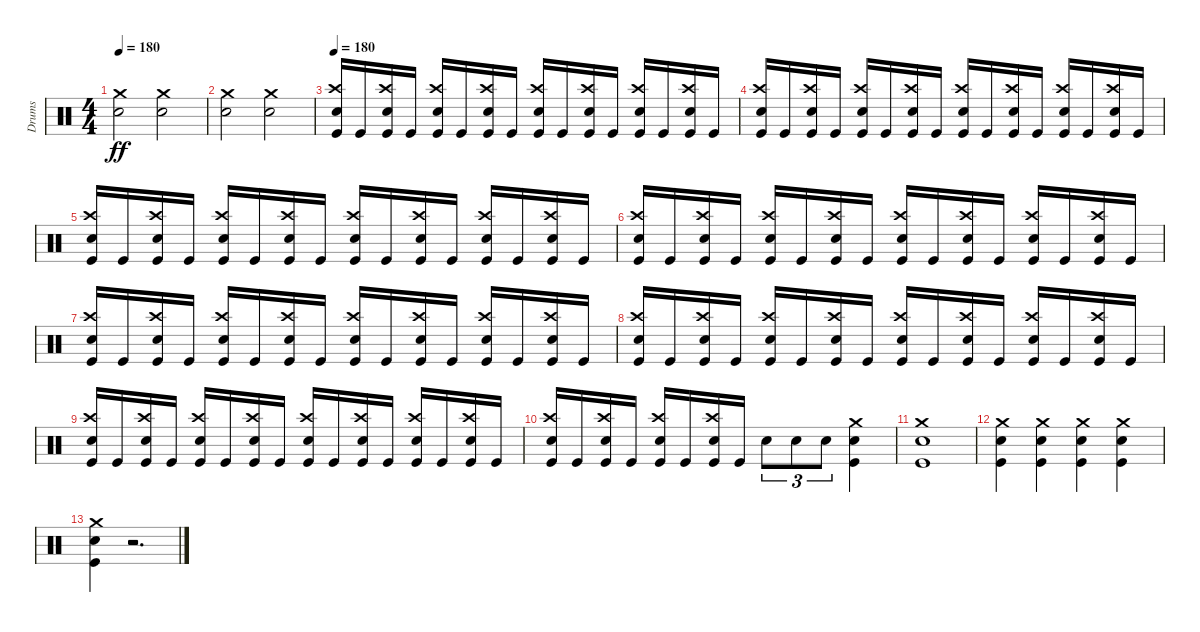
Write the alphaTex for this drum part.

\track ("Drums" "Drums") {instrument percussion}
\staff {score}
\articulation defaults
\ts (4 4)
\tempo 180
\clef neutral
\ks c
("Crash medium (hit)" "Electric Snare (hit)").2{dy ff} ("Crash medium (hit)" "Electric Snare (hit)").2 |
("Crash medium (hit)" "Electric Snare (hit)").2 ("Crash medium (hit)" "Electric Snare (hit)").2 |
\tempo 180
("Crash high (hit)" "Electric Snare (hit)" "Kick (hit)").16 "Kick (hit)".16 ("Crash high (hit)" "Electric Snare (hit)" "Kick (hit)").16 "Kick (hit)".16 ("Crash high (hit)" "Electric Snare (hit)" "Kick (hit)").16 "Kick (hit)".16 ("Crash high (hit)" "Electric Snare (hit)" "Kick (hit)").16 "Kick (hit)".16 ("Crash high (hit)" "Electric Snare (hit)" "Kick (hit)").16 "Kick (hit)".16 ("Crash high (hit)" "Electric Snare (hit)" "Kick (hit)").16 "Kick (hit)".16 ("Crash high (hit)" "Electric Snare (hit)" "Kick (hit)").16 "Kick (hit)".16 ("Crash high (hit)" "Electric Snare (hit)" "Kick (hit)").16 "Kick (hit)".16 |
("Crash high (hit)" "Electric Snare (hit)" "Kick (hit)").16 "Kick (hit)".16 ("Crash high (hit)" "Electric Snare (hit)" "Kick (hit)").16 "Kick (hit)".16 ("Crash high (hit)" "Electric Snare (hit)" "Kick (hit)").16 "Kick (hit)".16 ("Crash high (hit)" "Electric Snare (hit)" "Kick (hit)").16 "Kick (hit)".16 ("Crash high (hit)" "Electric Snare (hit)" "Kick (hit)").16 "Kick (hit)".16 ("Crash high (hit)" "Electric Snare (hit)" "Kick (hit)").16 "Kick (hit)".16 ("Crash high (hit)" "Electric Snare (hit)" "Kick (hit)").16 "Kick (hit)".16 ("Crash high (hit)" "Electric Snare (hit)" "Kick (hit)").16 "Kick (hit)".16 |
("Crash high (hit)" "Electric Snare (hit)" "Kick (hit)").16 "Kick (hit)".16 ("Crash high (hit)" "Electric Snare (hit)" "Kick (hit)").16 "Kick (hit)".16 ("Crash high (hit)" "Electric Snare (hit)" "Kick (hit)").16 "Kick (hit)".16 ("Crash high (hit)" "Electric Snare (hit)" "Kick (hit)").16 "Kick (hit)".16 ("Crash high (hit)" "Electric Snare (hit)" "Kick (hit)").16 "Kick (hit)".16 ("Crash high (hit)" "Electric Snare (hit)" "Kick (hit)").16 "Kick (hit)".16 ("Crash high (hit)" "Electric Snare (hit)" "Kick (hit)").16 "Kick (hit)".16 ("Crash high (hit)" "Electric Snare (hit)" "Kick (hit)").16 "Kick (hit)".16 |
("Crash high (hit)" "Electric Snare (hit)" "Kick (hit)").16 "Kick (hit)".16 ("Crash high (hit)" "Electric Snare (hit)" "Kick (hit)").16 "Kick (hit)".16 ("Crash high (hit)" "Electric Snare (hit)" "Kick (hit)").16 "Kick (hit)".16 ("Crash high (hit)" "Electric Snare (hit)" "Kick (hit)").16 "Kick (hit)".16 ("Crash high (hit)" "Electric Snare (hit)" "Kick (hit)").16 "Kick (hit)".16 ("Crash high (hit)" "Electric Snare (hit)" "Kick (hit)").16 "Kick (hit)".16 ("Crash high (hit)" "Electric Snare (hit)" "Kick (hit)").16 "Kick (hit)".16 ("Crash high (hit)" "Electric Snare (hit)" "Kick (hit)").16 "Kick (hit)".16 |
("Crash high (hit)" "Electric Snare (hit)" "Kick (hit)").16 "Kick (hit)".16 ("Crash high (hit)" "Electric Snare (hit)" "Kick (hit)").16 "Kick (hit)".16 ("Crash high (hit)" "Electric Snare (hit)" "Kick (hit)").16 "Kick (hit)".16 ("Crash high (hit)" "Electric Snare (hit)" "Kick (hit)").16 "Kick (hit)".16 ("Crash high (hit)" "Electric Snare (hit)" "Kick (hit)").16 "Kick (hit)".16 ("Crash high (hit)" "Electric Snare (hit)" "Kick (hit)").16 "Kick (hit)".16 ("Crash high (hit)" "Electric Snare (hit)" "Kick (hit)").16 "Kick (hit)".16 ("Crash high (hit)" "Electric Snare (hit)" "Kick (hit)").16 "Kick (hit)".16 |
("Crash high (hit)" "Electric Snare (hit)" "Kick (hit)").16 "Kick (hit)".16 ("Crash high (hit)" "Electric Snare (hit)" "Kick (hit)").16 "Kick (hit)".16 ("Crash high (hit)" "Electric Snare (hit)" "Kick (hit)").16 "Kick (hit)".16 ("Crash high (hit)" "Electric Snare (hit)" "Kick (hit)").16 "Kick (hit)".16 ("Crash high (hit)" "Electric Snare (hit)" "Kick (hit)").16 "Kick (hit)".16 ("Crash high (hit)" "Electric Snare (hit)" "Kick (hit)").16 "Kick (hit)".16 ("Crash high (hit)" "Electric Snare (hit)" "Kick (hit)").16 "Kick (hit)".16 ("Crash high (hit)" "Electric Snare (hit)" "Kick (hit)").16 "Kick (hit)".16 |
("Crash high (hit)" "Electric Snare (hit)" "Kick (hit)").16 "Kick (hit)".16 ("Crash high (hit)" "Electric Snare (hit)" "Kick (hit)").16 "Kick (hit)".16 ("Crash high (hit)" "Electric Snare (hit)" "Kick (hit)").16 "Kick (hit)".16 ("Crash high (hit)" "Electric Snare (hit)" "Kick (hit)").16 "Kick (hit)".16 ("Crash high (hit)" "Electric Snare (hit)" "Kick (hit)").16 "Kick (hit)".16 ("Crash high (hit)" "Electric Snare (hit)" "Kick (hit)").16 "Kick (hit)".16 ("Crash high (hit)" "Electric Snare (hit)" "Kick (hit)").16 "Kick (hit)".16 ("Crash high (hit)" "Electric Snare (hit)" "Kick (hit)").16 "Kick (hit)".16 |
("Crash high (hit)" "Electric Snare (hit)" "Kick (hit)").16 "Kick (hit)".16 ("Crash high (hit)" "Electric Snare (hit)" "Kick (hit)").16 "Kick (hit)".16 ("Crash high (hit)" "Electric Snare (hit)" "Kick (hit)").16 "Kick (hit)".16 ("Crash high (hit)" "Electric Snare (hit)" "Kick (hit)").16 "Kick (hit)".16 "Electric Snare (hit)".8{tu (3 2)} "Electric Snare (hit)".8{tu (3 2)} "Electric Snare (hit)".8{tu (3 2)} ("Crash medium (hit)" "Electric Snare (hit)" "Kick (hit)").4 |
("Crash medium (hit)" "Electric Snare (hit)" "Kick (hit)").1 |
("Crash medium (hit)" "Electric Snare (hit)" "Kick (hit)").4 ("Crash medium (hit)" "Electric Snare (hit)" "Kick (hit)").4 ("Crash medium (hit)" "Electric Snare (hit)" "Kick (hit)").4 ("Crash medium (hit)" "Electric Snare (hit)" "Kick (hit)").4 |
("Crash medium (hit)" "Electric Snare (hit)" "Kick (hit)").4 r.2{d}
